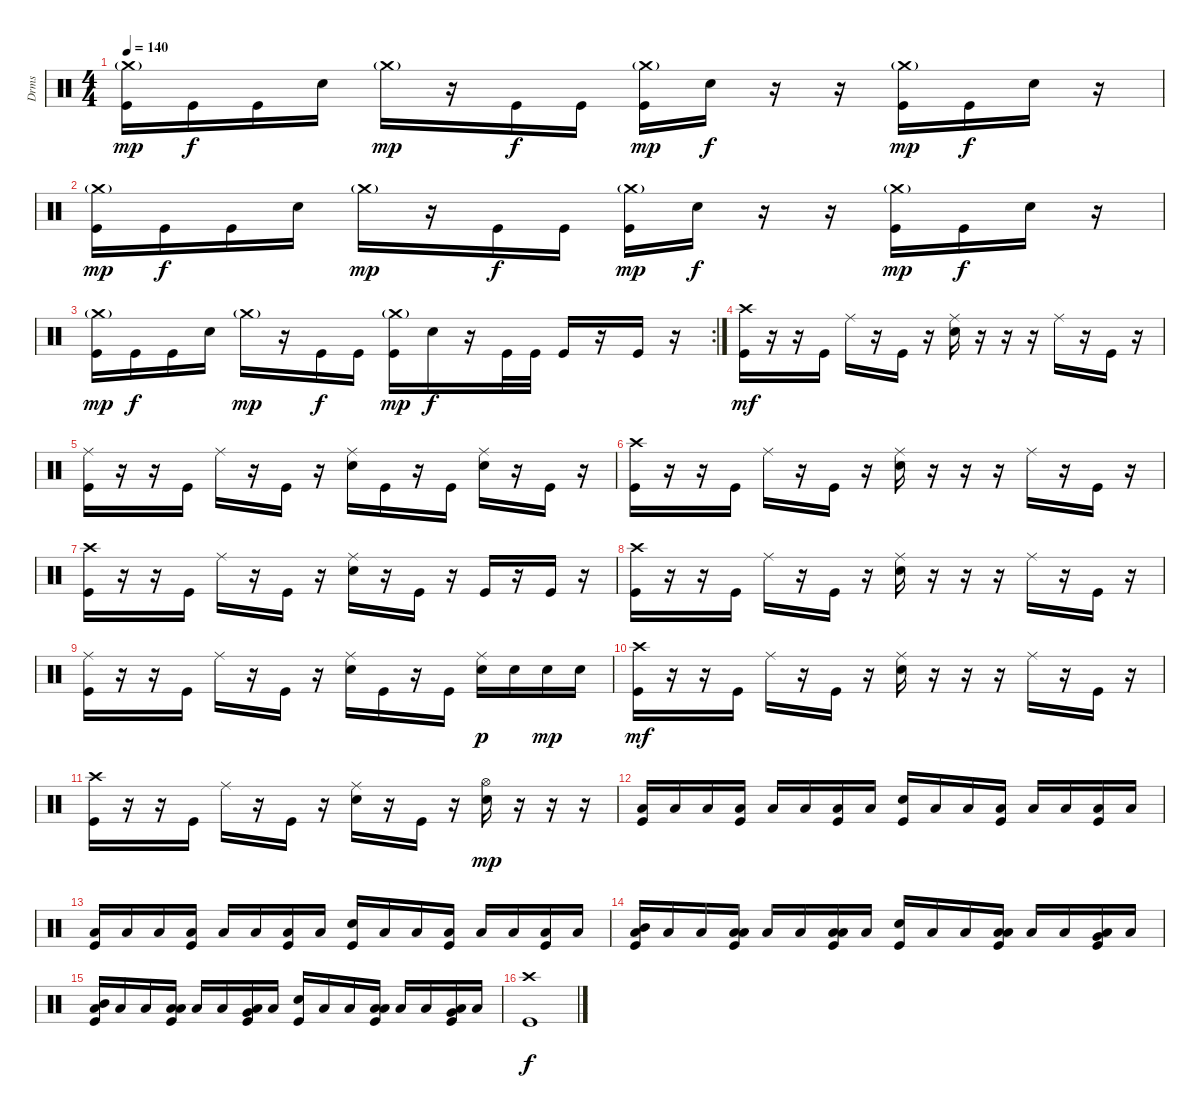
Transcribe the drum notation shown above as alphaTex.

\track ("Drms" "Drms") {instrument percussion}
\staff {score}
\articulation defaults
\ts (4 4)
\tempo 140
\clef neutral
\ks c
("Crash medium (hit)"{g} "Kick (hit)").16{dy mp} "Kick (hit)".16{dy f} "Kick (hit)".16 "Electric Snare (hit)".16 "Crash medium (hit)"{g}.16{dy mp} r.16 "Kick (hit)".16{dy f} "Kick (hit)".16 ("Crash medium (hit)"{g} "Kick (hit)").16{dy mp} "Electric Snare (hit)".16{dy f} r.16 r.16 ("Crash medium (hit)"{g} "Kick (hit)").16{dy mp} "Kick (hit)".16{dy f} "Electric Snare (hit)".16 r.16 |
("Crash medium (hit)"{g} "Kick (hit)").16{dy mp} "Kick (hit)".16{dy f} "Kick (hit)".16 "Electric Snare (hit)".16 "Crash medium (hit)"{g}.16{dy mp} r.16 "Kick (hit)".16{dy f} "Kick (hit)".16 ("Crash medium (hit)"{g} "Kick (hit)").16{dy mp} "Electric Snare (hit)".16{dy f} r.16 r.16 ("Crash medium (hit)"{g} "Kick (hit)").16{dy mp} "Kick (hit)".16{dy f} "Electric Snare (hit)".16 r.16 |
\rc 2
("Crash medium (hit)"{g} "Kick (hit)").16{dy mp} "Kick (hit)".16{dy f} "Kick (hit)".16 "Electric Snare (hit)".16 "Crash medium (hit)"{g}.16{dy mp} r.16 "Kick (hit)".16{dy f} "Kick (hit)".16 ("Crash medium (hit)"{g} "Kick (hit)").16{dy mp} "Electric Snare (hit)".16{dy f} r.16 "Kick (hit)".32 "Kick (hit)".32 "Kick (hit)".16 r.16 "Kick (hit)".16 r.16 |
("Crash high (hit)" "Kick (hit)").16{dy mf} r.16 r.16 "Kick (hit)".16 "Ride (middle)".16 r.16 "Kick (hit)".16 r.16 ("Ride (middle)" "Electric Snare (hit)").16 r.16 r.16 r.16 "Ride (middle)".16 r.16 "Kick (hit)".16 r.16 |
("Ride (middle)" "Kick (hit)").16 r.16 r.16 "Kick (hit)".16 "Ride (middle)".16 r.16 "Kick (hit)".16 r.16 ("Ride (middle)" "Electric Snare (hit)").16 "Kick (hit)".16 r.16 "Kick (hit)".16 ("Ride (middle)" "Electric Snare (hit)").16 r.16 "Kick (hit)".16 r.16 |
("Crash high (hit)" "Kick (hit)").16 r.16 r.16 "Kick (hit)".16 "Ride (middle)".16 r.16 "Kick (hit)".16 r.16 ("Ride (middle)" "Electric Snare (hit)").16 r.16 r.16 r.16 "Ride (middle)".16 r.16 "Kick (hit)".16 r.16 |
("Crash high (hit)" "Kick (hit)").16 r.16 r.16 "Kick (hit)".16 "Ride (middle)".16 r.16 "Kick (hit)".16 r.16 ("Ride (middle)" "Electric Snare (hit)").16 r.16 "Kick (hit)".16 r.16 "Kick (hit)".16 r.16 "Kick (hit)".16 r.16 |
("Crash high (hit)" "Kick (hit)").16 r.16 r.16 "Kick (hit)".16 "Ride (middle)".16 r.16 "Kick (hit)".16 r.16 ("Ride (middle)" "Electric Snare (hit)").16 r.16 r.16 r.16 "Ride (middle)".16 r.16 "Kick (hit)".16 r.16 |
("Ride (middle)" "Kick (hit)").16 r.16 r.16 "Kick (hit)".16 "Ride (middle)".16 r.16 "Kick (hit)".16 r.16 ("Ride (middle)" "Electric Snare (hit)").16 "Kick (hit)".16 r.16 "Kick (hit)".16 ("Ride (middle)" "Electric Snare (hit)").16{dy p} "Electric Snare (hit)".16 "Electric Snare (hit)".16{dy mp} "Electric Snare (hit)".16 |
("Crash high (hit)" "Kick (hit)").16{dy mf} r.16 r.16 "Kick (hit)".16 "Ride (middle)".16 r.16 "Kick (hit)".16 r.16 ("Ride (middle)" "Electric Snare (hit)").16 r.16 r.16 r.16 "Ride (middle)".16 r.16 "Kick (hit)".16 r.16 |
("Crash high (hit)" "Kick (hit)").16 r.16 r.16 "Kick (hit)".16 "Ride (middle)".16 r.16 "Kick (hit)".16 r.16 ("Ride (middle)" "Electric Snare (hit)").16 r.16 "Kick (hit)".16 r.16 ("Hi-Hat (open)" "Electric Snare (hit)").16{dy mp} r.16 r.16 r.16 |
("Low Floor Tom (hit)" "Kick (hit)").16 "Low Floor Tom (hit)".16 "Low Floor Tom (hit)".16 ("Low Floor Tom (hit)" "Kick (hit)").16 "Low Floor Tom (hit)".16 "Low Floor Tom (hit)".16 ("Low Floor Tom (hit)" "Kick (hit)").16 "Low Floor Tom (hit)".16 ("Electric Snare (hit)" "Kick (hit)").16 "Low Floor Tom (hit)".16 "Low Floor Tom (hit)".16 ("Low Floor Tom (hit)" "Kick (hit)").16 "Low Floor Tom (hit)".16 "Low Floor Tom (hit)".16 ("Low Floor Tom (hit)" "Kick (hit)").16 "Low Floor Tom (hit)".16 |
("Low Floor Tom (hit)" "Kick (hit)").16 "Low Floor Tom (hit)".16 "Low Floor Tom (hit)".16 ("Low Floor Tom (hit)" "Kick (hit)").16 "Low Floor Tom (hit)".16 "Low Floor Tom (hit)".16 ("Low Floor Tom (hit)" "Kick (hit)").16 "Low Floor Tom (hit)".16 ("Electric Snare (hit)" "Kick (hit)").16 "Low Floor Tom (hit)".16 "Low Floor Tom (hit)".16 ("Low Floor Tom (hit)" "Kick (hit)").16 "Low Floor Tom (hit)".16 "Low Floor Tom (hit)".16 ("Low Floor Tom (hit)" "Kick (hit)").16 "Low Floor Tom (hit)".16 |
("Mid Tom (hit)" "Low Floor Tom (hit)" "Kick (hit)").16 "Low Floor Tom (hit)".16 "Low Floor Tom (hit)".16 ("Low Tom (hit)" "Low Floor Tom (hit)" "Kick (hit)").16 "Low Floor Tom (hit)".16 "Low Floor Tom (hit)".16 ("Low Tom (hit)" "Low Floor Tom (hit)" "Kick (hit)").16 "Low Floor Tom (hit)".16 ("Electric Snare (hit)" "Kick (hit)").16 "Low Floor Tom (hit)".16 "Low Floor Tom (hit)".16 ("Low Tom (hit)" "Low Floor Tom (hit)" "Kick (hit)").16 "Low Floor Tom (hit)".16 "Low Floor Tom (hit)".16 ("Very Low Tom (hit)" "Low Floor Tom (hit)" "Kick (hit)").16 "Low Floor Tom (hit)".16 |
("Mid Tom (hit)" "Low Floor Tom (hit)" "Kick (hit)").16 "Low Floor Tom (hit)".16 "Low Floor Tom (hit)".16 ("Low Tom (hit)" "Low Floor Tom (hit)" "Kick (hit)").16 "Low Floor Tom (hit)".16 "Low Floor Tom (hit)".16 ("Very Low Tom (hit)" "Low Floor Tom (hit)" "Kick (hit)").16 "Low Floor Tom (hit)".16 ("Electric Snare (hit)" "Kick (hit)").16 "Low Floor Tom (hit)".16 "Low Floor Tom (hit)".16 ("Low Tom (hit)" "Low Floor Tom (hit)" "Kick (hit)").16 "Low Floor Tom (hit)".16 "Low Floor Tom (hit)".16 ("Very Low Tom (hit)" "Low Floor Tom (hit)" "Kick (hit)").16 "Low Floor Tom (hit)".16 |
("Crash high (hit)" "Kick (hit)").1{dy f}
